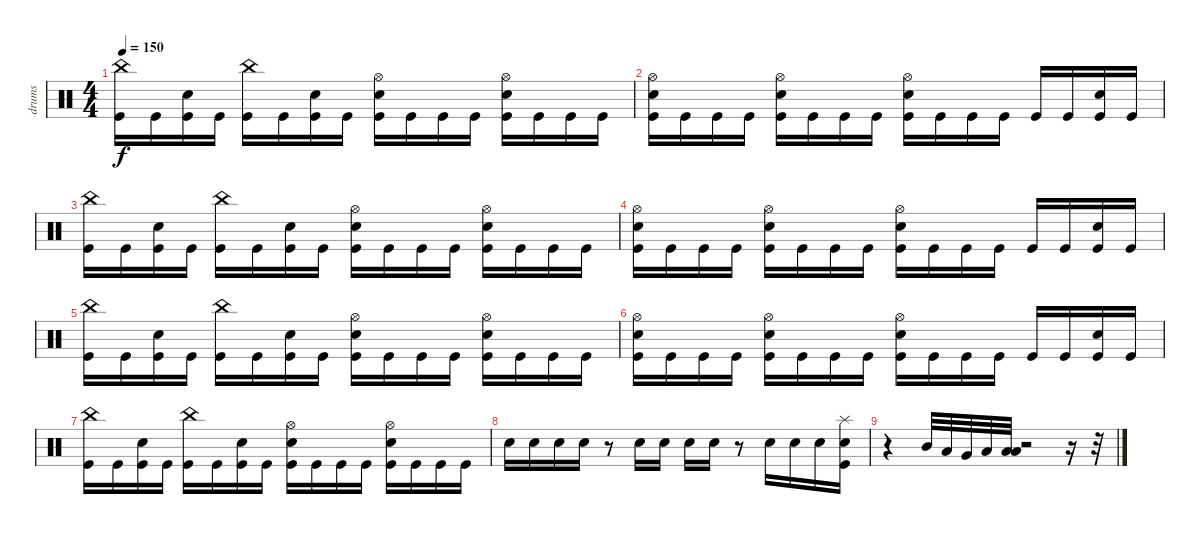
\track ("drums" "drums") {instrument percussion}
\staff {score}
\articulation defaults
\ts (4 4)
\tempo 150
\clef neutral
\ks c
("China (hit)" "Kick (hit)").16{dy f} "Kick (hit)".16 ("Electric Snare (hit)" "Kick (hit)").16 "Kick (hit)".16 ("China (hit)" "Kick (hit)").16 "Kick (hit)".16 ("Electric Snare (hit)" "Kick (hit)").16 "Kick (hit)".16 ("Hi-Hat (open)" "Electric Snare (hit)" "Kick (hit)").16 "Kick (hit)".16 "Kick (hit)".16 "Kick (hit)".16 ("Hi-Hat (open)" "Electric Snare (hit)" "Kick (hit)").16 "Kick (hit)".16 "Kick (hit)".16 "Kick (hit)".16 |
("Hi-Hat (open)" "Electric Snare (hit)" "Kick (hit)").16 "Kick (hit)".16 "Kick (hit)".16 "Kick (hit)".16 ("Hi-Hat (open)" "Kick (hit)" "Electric Snare (hit)").16 "Kick (hit)".16 "Kick (hit)".16 "Kick (hit)".16 ("Hi-Hat (open)" "Kick (hit)" "Electric Snare (hit)").16 "Kick (hit)".16 "Kick (hit)".16 "Kick (hit)".16 "Kick (hit)".16 "Kick (hit)".16 ("Kick (hit)" "Electric Snare (hit)").16 "Kick (hit)".16 |
("China (hit)" "Kick (hit)").16 "Kick (hit)".16 ("Electric Snare (hit)" "Kick (hit)").16 "Kick (hit)".16 ("China (hit)" "Kick (hit)").16 "Kick (hit)".16 ("Electric Snare (hit)" "Kick (hit)").16 "Kick (hit)".16 ("Hi-Hat (open)" "Electric Snare (hit)" "Kick (hit)").16 "Kick (hit)".16 "Kick (hit)".16 "Kick (hit)".16 ("Hi-Hat (open)" "Electric Snare (hit)" "Kick (hit)").16 "Kick (hit)".16 "Kick (hit)".16 "Kick (hit)".16 |
("Hi-Hat (open)" "Electric Snare (hit)" "Kick (hit)").16 "Kick (hit)".16 "Kick (hit)".16 "Kick (hit)".16 ("Hi-Hat (open)" "Kick (hit)" "Electric Snare (hit)").16 "Kick (hit)".16 "Kick (hit)".16 "Kick (hit)".16 ("Hi-Hat (open)" "Kick (hit)" "Electric Snare (hit)").16 "Kick (hit)".16 "Kick (hit)".16 "Kick (hit)".16 "Kick (hit)".16 "Kick (hit)".16 ("Kick (hit)" "Electric Snare (hit)").16 "Kick (hit)".16 |
("China (hit)" "Kick (hit)").16 "Kick (hit)".16 ("Electric Snare (hit)" "Kick (hit)").16 "Kick (hit)".16 ("China (hit)" "Kick (hit)").16 "Kick (hit)".16 ("Electric Snare (hit)" "Kick (hit)").16 "Kick (hit)".16 ("Hi-Hat (open)" "Electric Snare (hit)" "Kick (hit)").16 "Kick (hit)".16 "Kick (hit)".16 "Kick (hit)".16 ("Hi-Hat (open)" "Electric Snare (hit)" "Kick (hit)").16 "Kick (hit)".16 "Kick (hit)".16 "Kick (hit)".16 |
("Hi-Hat (open)" "Electric Snare (hit)" "Kick (hit)").16 "Kick (hit)".16 "Kick (hit)".16 "Kick (hit)".16 ("Hi-Hat (open)" "Kick (hit)" "Electric Snare (hit)").16 "Kick (hit)".16 "Kick (hit)".16 "Kick (hit)".16 ("Hi-Hat (open)" "Kick (hit)" "Electric Snare (hit)").16 "Kick (hit)".16 "Kick (hit)".16 "Kick (hit)".16 "Kick (hit)".16 "Kick (hit)".16 ("Kick (hit)" "Electric Snare (hit)").16 "Kick (hit)".16 |
("China (hit)" "Kick (hit)").16 "Kick (hit)".16 ("Electric Snare (hit)" "Kick (hit)").16 "Kick (hit)".16 ("China (hit)" "Kick (hit)").16 "Kick (hit)".16 ("Electric Snare (hit)" "Kick (hit)").16 "Kick (hit)".16 ("Hi-Hat (open)" "Electric Snare (hit)" "Kick (hit)").16 "Kick (hit)".16 "Kick (hit)".16 "Kick (hit)".16 ("Hi-Hat (open)" "Electric Snare (hit)" "Kick (hit)").16 "Kick (hit)".16 "Kick (hit)".16 "Kick (hit)".16 |
"Electric Snare (hit)".16 "Electric Snare (hit)".16 "Electric Snare (hit)".16 "Electric Snare (hit)".16 r.8 "Electric Snare (hit)".16 "Electric Snare (hit)".16 "Electric Snare (hit)".16 "Electric Snare (hit)".16 r.8 "Electric Snare (hit)".16 "Electric Snare (hit)".16 "Electric Snare (hit)".16 ("Kick (hit)" "Splash (hit)" "Electric Snare (hit)").16 |
r.4 "Mid Tom (hit)".32 "Low Tom (hit)".32 "Very Low Tom (hit)".32 "Low Floor Tom (hit)".32 ("Low Tom (hit)" "Low Floor Tom (hit)").32 r.2 r.16 r.32
